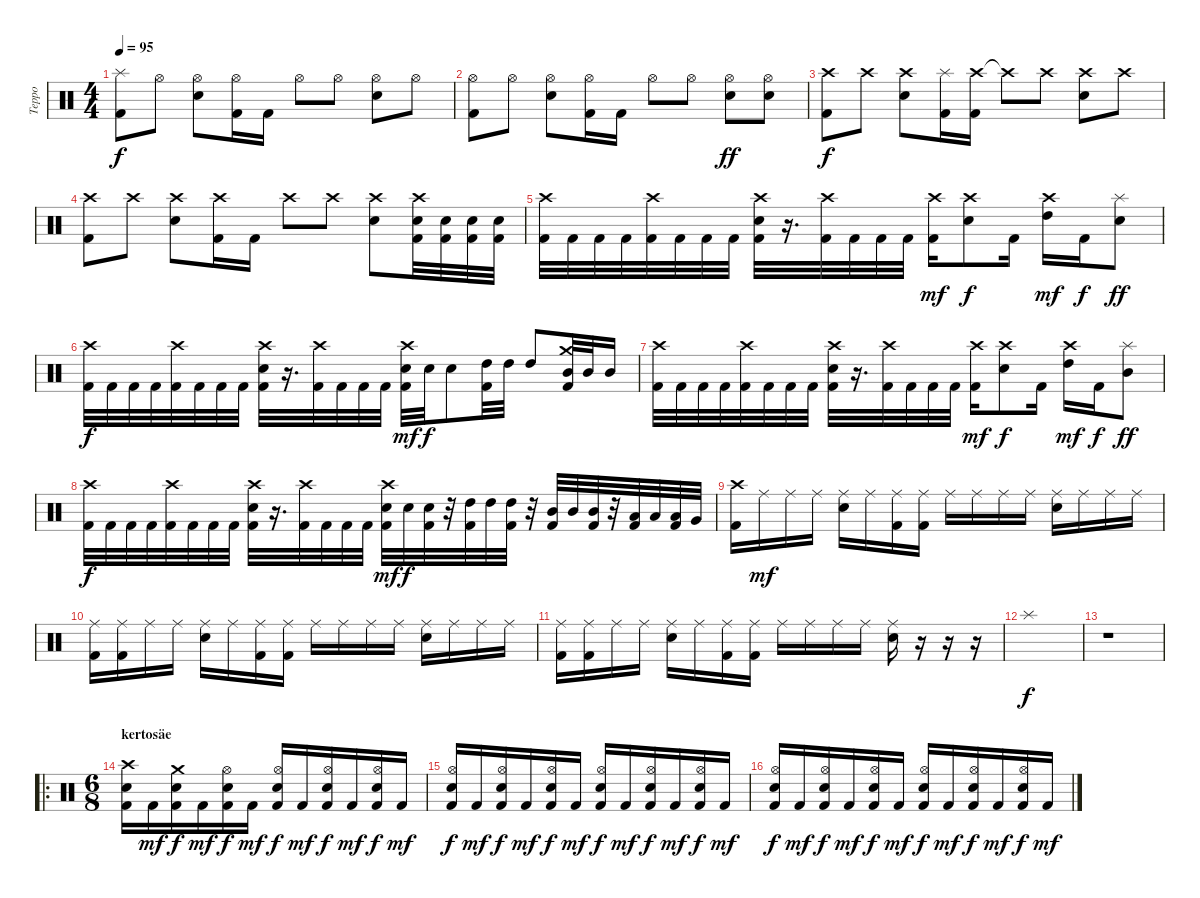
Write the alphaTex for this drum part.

\track ("Teppo" "Teppo") {instrument percussion}
\staff {score}
\articulation defaults
\ts (4 4)
\tempo 95
\clef neutral
\ks c
("Splash (hit)" "Kick (hit) 2").8{dy f} "Hi-Hat (open)".8 ("Hi-Hat (open)" "Electric Snare (hit)").8 ("Hi-Hat (open)" "Kick (hit) 2").16 "Kick (hit) 2".16 "Hi-Hat (open)".8 "Hi-Hat (open)".8 ("Hi-Hat (open)" "Electric Snare (hit)").8 "Hi-Hat (open)".8 |
("Hi-Hat (open)" "Kick (hit) 2").8 "Hi-Hat (open)".8 ("Hi-Hat (open)" "Electric Snare (hit)").8 ("Hi-Hat (open)" "Kick (hit) 2").16 "Kick (hit) 2".16 "Hi-Hat (open)".8 "Hi-Hat (open)".8 ("Hi-Hat (open)" "Electric Snare (hit)").8{dy ff} ("Hi-Hat (open)" "Electric Snare (hit)").8 |
("Crash high (hit)" "Kick (hit) 2").8{dy f} "Crash high (hit)".8 ("Crash high (hit)" "Electric Snare (hit)").8 ("Splash (hit)" "Kick (hit) 2").16 ("Crash high (hit)" "Kick (hit) 2").16 "Crash high (hit)"{t}.8 "Crash high (hit)".8 ("Crash high (hit)" "Electric Snare (hit)").8 "Crash high (hit)".8 |
("Crash high (hit)" "Kick (hit) 2").8 "Crash high (hit)".8 ("Crash high (hit)" "Electric Snare (hit)").8 ("Crash high (hit)" "Kick (hit) 2").16 "Kick (hit) 2".16 "Crash high (hit)".8 "Crash high (hit)".8 ("Crash high (hit)" "Electric Snare (hit)").8 ("Crash high (hit)" "Electric Snare (hit)" "Kick (hit) 2").32 ("Electric Snare (hit)" "Kick (hit) 2").32 ("Electric Snare (hit)" "Kick (hit) 2").32 ("Electric Snare (hit)" "Kick (hit) 2").32 |
\section ("" "")
("Crash high (hit)" "Kick (hit) 2").32 "Kick (hit) 2".32 "Kick (hit) 2".32 "Kick (hit) 2".32 ("Crash high (hit)" "Kick (hit) 2").32 "Kick (hit) 2".32 "Kick (hit) 2".32 "Kick (hit) 2".32 ("Crash high (hit)" "Electric Snare (hit)" "Kick (hit) 2").32 r.16{d} ("Crash high (hit)" "Kick (hit) 2").32 "Kick (hit) 2".32 "Kick (hit) 2".32 "Kick (hit) 2".32 ("Crash high (hit)" "Kick (hit) 2").16{dy mf} ("Crash high (hit)" "Electric Snare (hit)").8{dy f} "Kick (hit) 2".16 ("Crash high (hit)" "High Tom (hit)").16{dy mf} "Kick (hit) 2".16{dy f} ("Splash (hit)" "Electric Snare (hit)").8{dy ff} |
("Crash high (hit)" "Kick (hit) 2").32{dy f} "Kick (hit) 2".32 "Kick (hit) 2".32 "Kick (hit) 2".32 ("Crash high (hit)" "Kick (hit) 2").32 "Kick (hit) 2".32 "Kick (hit) 2".32 "Kick (hit) 2".32 ("Crash high (hit)" "Electric Snare (hit)" "Kick (hit) 2").32 r.16{d} ("Crash high (hit)" "Kick (hit) 2").32 "Kick (hit) 2".32 "Kick (hit) 2".32 "Kick (hit) 2".32 ("Crash high (hit)" "Electric Snare (hit)" "Kick (hit) 2").32{dy mf} "Electric Snare (hit)".32{dy f} "Electric Snare (hit)".8 ("High Tom (hit)" "Kick (hit) 2").32 "High Tom (hit)".32 "High Tom (hit)".8 ("Crash medium (hit)" "Mid Tom (hit)" "Kick (hit) 2").32 "Mid Tom (hit)".32 "Mid Tom (hit)".16 |
("Crash high (hit)" "Kick (hit) 2").32 "Kick (hit) 2".32 "Kick (hit) 2".32 "Kick (hit) 2".32 ("Crash high (hit)" "Kick (hit) 2").32 "Kick (hit) 2".32 "Kick (hit) 2".32 "Kick (hit) 2".32 ("Crash high (hit)" "Electric Snare (hit)" "Kick (hit) 2").32 r.16{d} ("Crash high (hit)" "Kick (hit) 2").32 "Kick (hit) 2".32 "Kick (hit) 2".32 "Kick (hit) 2".32 ("Crash high (hit)" "Kick (hit) 2").16{dy mf} ("Crash high (hit)" "Electric Snare (hit)").8{dy f} "Kick (hit) 2".16 ("Crash high (hit)" "High Tom (hit)").16{dy mf} "Kick (hit) 2".16{dy f} ("Splash (hit)" "Mid Tom (hit)").8{dy ff} |
("Crash high (hit)" "Kick (hit) 2").32{dy f} "Kick (hit) 2".32 "Kick (hit) 2".32 "Kick (hit) 2".32 ("Crash high (hit)" "Kick (hit) 2").32 "Kick (hit) 2".32 "Kick (hit) 2".32 "Kick (hit) 2".32 ("Crash high (hit)" "Electric Snare (hit)" "Kick (hit) 2").32 r.16{d} ("Crash high (hit)" "Kick (hit) 2").32 "Kick (hit) 2".32 "Kick (hit) 2".32 "Kick (hit) 2".32 ("Crash high (hit)" "Electric Snare (hit)" "Kick (hit) 2").32{dy mf} "Electric Snare (hit)".32{dy f} ("Electric Snare (hit)" "Kick (hit) 2").32 r.32 ("High Tom (hit)" "Kick (hit) 2").32 "High Tom (hit)".32 ("High Tom (hit)" "Kick (hit) 2").32 r.32 ("Mid Tom (hit)" "Kick (hit) 2").32 "Mid Tom (hit)".32 ("Mid Tom (hit)" "Kick (hit) 2").32 r.32 ("Low Tom (hit)" "Kick (hit) 2").32 "Low Tom (hit)".32 ("Low Tom (hit)" "Kick (hit) 2").32 "Very Low Tom (hit)".32 |
\section ("" "")
("Crash high (hit)" "Kick (hit) 2").16 "Ride (middle)".16{dy mf} "Ride (middle)".16 "Ride (middle)".16 ("Ride (middle)" "Electric Snare (hit)").16 "Ride (middle)".16 ("Ride (middle)" "Kick (hit) 2").16 ("Ride (middle)" "Kick (hit) 2").16 "Ride (middle)".16 "Ride (middle)".16 "Ride (middle)".16 "Ride (middle)".16 ("Ride (middle)" "Electric Snare (hit)").16 "Ride (middle)".16 "Ride (middle)".16 "Ride (middle)".16 |
("Ride (middle)" "Kick (hit) 2").16 ("Ride (middle)" "Kick (hit) 2").16 "Ride (middle)".16 "Ride (middle)".16 ("Ride (middle)" "Electric Snare (hit)").16 "Ride (middle)".16 ("Ride (middle)" "Kick (hit) 2").16 ("Ride (middle)" "Kick (hit) 2").16 "Ride (middle)".16 "Ride (middle)".16 "Ride (middle)".16 "Ride (middle)".16 ("Ride (middle)" "Electric Snare (hit)").16 "Ride (middle)".16 "Ride (middle)".16 "Ride (middle)".16 |
("Ride (middle)" "Kick (hit) 2").16 ("Ride (middle)" "Kick (hit) 2").16 "Ride (middle)".16 "Ride (middle)".16 ("Ride (middle)" "Electric Snare (hit)").16 "Ride (middle)".16 ("Ride (middle)" "Kick (hit) 2").16 ("Ride (middle)" "Kick (hit) 2").16 "Ride (middle)".16 "Ride (middle)".16 "Ride (middle)".16 "Ride (middle)".16 ("Ride (middle)" "Electric Snare (hit)").16 r.16 r.16 r.16 |
"Splash (hit)".1{dy f} |
r.1 |
\ro
\ts (6 8)
\section ("" "kertosäe")
("Crash high (hit)" "Electric Snare (hit)" "Kick (hit) 2").16 "Kick (hit) 2".16{dy mf} ("Crash medium (hit)" "Electric Snare (hit)" "Kick (hit) 2").16{dy f} "Kick (hit) 2".16{dy mf} ("Hi-Hat (open)" "Electric Snare (hit)" "Kick (hit) 2").16{dy f} "Kick (hit) 2".16{dy mf} ("Hi-Hat (open)" "Electric Snare (hit)" "Kick (hit) 2").16{dy f} "Kick (hit) 2".16{dy mf} ("Hi-Hat (open)" "Electric Snare (hit)" "Kick (hit) 2").16{dy f} "Kick (hit) 2".16{dy mf} ("Hi-Hat (open)" "Electric Snare (hit)" "Kick (hit) 2").16{dy f} "Kick (hit) 2".16{dy mf} |
("Hi-Hat (open)" "Electric Snare (hit)" "Kick (hit) 2").16{dy f} "Kick (hit) 2".16{dy mf} ("Hi-Hat (open)" "Electric Snare (hit)" "Kick (hit) 2").16{dy f} "Kick (hit) 2".16{dy mf} ("Hi-Hat (open)" "Electric Snare (hit)" "Kick (hit) 2").16{dy f} "Kick (hit) 2".16{dy mf} ("Hi-Hat (open)" "Electric Snare (hit)" "Kick (hit) 2").16{dy f} "Kick (hit) 2".16{dy mf} ("Hi-Hat (open)" "Electric Snare (hit)" "Kick (hit) 2").16{dy f} "Kick (hit) 2".16{dy mf} ("Hi-Hat (open)" "Electric Snare (hit)" "Kick (hit) 2").16{dy f} "Kick (hit) 2".16{dy mf} |
("Hi-Hat (open)" "Electric Snare (hit)" "Kick (hit) 2").16{dy f} "Kick (hit) 2".16{dy mf} ("Hi-Hat (open)" "Electric Snare (hit)" "Kick (hit) 2").16{dy f} "Kick (hit) 2".16{dy mf} ("Hi-Hat (open)" "Electric Snare (hit)" "Kick (hit) 2").16{dy f} "Kick (hit) 2".16{dy mf} ("Hi-Hat (open)" "Electric Snare (hit)" "Kick (hit) 2").16{dy f} "Kick (hit) 2".16{dy mf} ("Hi-Hat (open)" "Electric Snare (hit)" "Kick (hit) 2").16{dy f} "Kick (hit) 2".16{dy mf} ("Hi-Hat (open)" "Electric Snare (hit)" "Kick (hit) 2").16{dy f} "Kick (hit) 2".16{dy mf}
